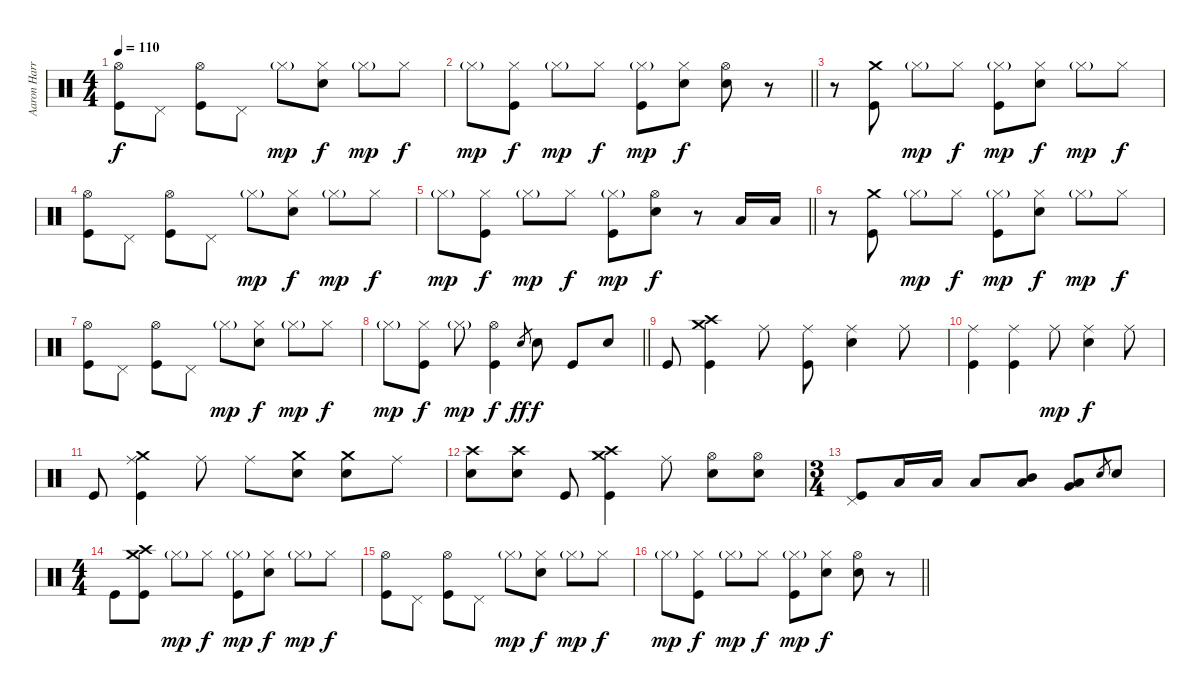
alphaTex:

\track ("Aaron Harris" "Aaron Harr") {instrument percussion}
\staff {score}
\articulation defaults
\ts (4 4)
\tempo 110
\clef neutral
\ks c
("Hi-Hat (open)" "Kick (hit)").8{dy f} "Pedal Hi-Hat (hit)".8 ("Hi-Hat (open)" "Kick (hit)").8 "Pedal Hi-Hat (hit)".8 "Hi-Hat (closed)"{g}.8{dy mp} ("Hi-Hat (closed)" "Electric Snare (hit)").8{dy f} "Hi-Hat (closed)"{g}.8{dy mp} "Hi-Hat (closed)".8{dy f} |
\barLineRight lightlight "Hi-Hat (closed)"{g}.8{dy mp}
("Hi-Hat (closed)" "Kick (hit)").8{dy f} "Hi-Hat (closed)"{g}.8{dy mp} "Hi-Hat (closed)".8{dy f} ("Hi-Hat (closed)"{g} "Kick (hit)").8{dy mp} ("Hi-Hat (closed)" "Electric Snare (hit)").8{dy f} ("Hi-Hat (open)" "Electric Snare (hit)").8 r.8 |
r.8 ("Crash medium (hit)" "Kick (hit)").8 "Hi-Hat (closed)"{g}.8{dy mp} "Hi-Hat (closed)".8{dy f} ("Hi-Hat (closed)"{g} "Kick (hit)").8{dy mp} ("Hi-Hat (closed)" "Electric Snare (hit)").8{dy f} "Hi-Hat (closed)"{g}.8{dy mp} "Hi-Hat (closed)".8{dy f} |
("Hi-Hat (open)" "Kick (hit)").8 "Pedal Hi-Hat (hit)".8 ("Hi-Hat (open)" "Kick (hit)").8 "Pedal Hi-Hat (hit)".8 "Hi-Hat (closed)"{g}.8{dy mp} ("Hi-Hat (closed)" "Electric Snare (hit)").8{dy f} "Hi-Hat (closed)"{g}.8{dy mp} "Hi-Hat (closed)".8{dy f} |
\barLineRight lightlight "Hi-Hat (closed)"{g}.8{dy mp}
("Hi-Hat (closed)" "Kick (hit)").8{dy f} "Hi-Hat (closed)"{g}.8{dy mp} "Hi-Hat (closed)".8{dy f} ("Hi-Hat (closed)"{g} "Kick (hit)").8{dy mp} ("Hi-Hat (open)" "Electric Snare (hit)").8{dy f} r.8 "Low Tom (hit)".16 "Low Tom (hit)".16 |
r.8 ("Crash medium (hit)" "Kick (hit)").8 "Hi-Hat (closed)"{g}.8{dy mp} "Hi-Hat (closed)".8{dy f} ("Hi-Hat (closed)"{g} "Kick (hit)").8{dy mp} ("Hi-Hat (closed)" "Electric Snare (hit)").8{dy f} "Hi-Hat (closed)"{g}.8{dy mp} "Hi-Hat (closed)".8{dy f} |
("Hi-Hat (open)" "Kick (hit)").8 "Pedal Hi-Hat (hit)".8 ("Hi-Hat (open)" "Kick (hit)").8 "Pedal Hi-Hat (hit)".8 "Hi-Hat (closed)"{g}.8{dy mp} ("Hi-Hat (closed)" "Electric Snare (hit)").8{dy f} "Hi-Hat (closed)"{g}.8{dy mp} "Hi-Hat (closed)".8{dy f} |
\barLineRight lightlight "Hi-Hat (closed)"{g}.8{dy mp}
("Hi-Hat (closed)" "Kick (hit)").8{dy f} "Hi-Hat (closed)"{g}.8{dy mp} ("Hi-Hat (open)" "Kick (hit)").4{dy f} "Electric Snare (hit)".8{gr dy ff} "Electric Snare (hit)".8{dy f} "Kick (hit)".8 "Electric Snare (hit)".8 |
"Kick (hit)".8 ("Crash medium (hit)" "Crash high (hit)" "Kick (hit)").4 "Ride (middle)".8 ("Ride (middle)" "Kick (hit)").8 ("Ride (middle)" "Electric Snare (hit)").4 "Ride (middle)".8 |
("Ride (middle)" "Kick (hit)").4 ("Ride (middle)" "Kick (hit)").4 "Ride (middle)".8{dy mp} ("Ride (middle)" "Electric Snare (hit)").4{dy f} "Ride (middle)".8 |
"Kick (hit)".8 ("Crash medium (hit)" "Ride (middle)" "Kick (hit)").4 "Ride (middle)".8 "Ride (middle)".8 ("Crash medium (hit)" "Electric Snare (hit)").8 ("Crash medium (hit)" "Electric Snare (hit)").8 "Ride (middle)".8 |
("Crash high (hit)" "Electric Snare (hit)").8 ("Crash high (hit)" "Electric Snare (hit)").8 "Kick (hit)".8 ("Crash medium (hit)" "Crash high (hit)" "Kick (hit)").4 "Ride (middle)".8 ("Hi-Hat (open)" "Electric Snare (hit)").8 ("Hi-Hat (open)" "Electric Snare (hit)").8 |
\ts (3 4)
("Pedal Hi-Hat (hit)" "Kick (hit)").8 "Low Tom (hit)".16 "Low Tom (hit)".16 "Low Tom (hit)".8 ("Mid Tom (hit)" "Low Tom (hit)").8 ("Low Tom (hit)" "Very Low Tom (hit)").8 "Electric Snare (hit)".8{gr} "Electric Snare (hit)".8 |
\ts (4 4)
"Kick (hit)".8 ("Crash medium (hit)" "Crash high (hit)" "Kick (hit)").8 "Hi-Hat (closed)"{g}.8{dy mp} "Hi-Hat (closed)".8{dy f} ("Hi-Hat (closed)"{g} "Kick (hit)").8{dy mp} ("Hi-Hat (closed)" "Electric Snare (hit)").8{dy f} "Hi-Hat (closed)"{g}.8{dy mp} "Hi-Hat (closed)".8{dy f} |
("Hi-Hat (open)" "Kick (hit)").8 "Pedal Hi-Hat (hit)".8 ("Hi-Hat (open)" "Kick (hit)").8 "Pedal Hi-Hat (hit)".8 "Hi-Hat (closed)"{g}.8{dy mp} ("Hi-Hat (closed)" "Electric Snare (hit)").8{dy f} "Hi-Hat (closed)"{g}.8{dy mp} "Hi-Hat (closed)".8{dy f} |
\barLineRight lightlight "Hi-Hat (closed)"{g}.8{dy mp}
("Hi-Hat (closed)" "Kick (hit)").8{dy f} "Hi-Hat (closed)"{g}.8{dy mp} "Hi-Hat (closed)".8{dy f} ("Hi-Hat (closed)"{g} "Kick (hit)").8{dy mp} ("Hi-Hat (closed)" "Electric Snare (hit)").8{dy f} ("Hi-Hat (open)" "Electric Snare (hit)").8 r.8
